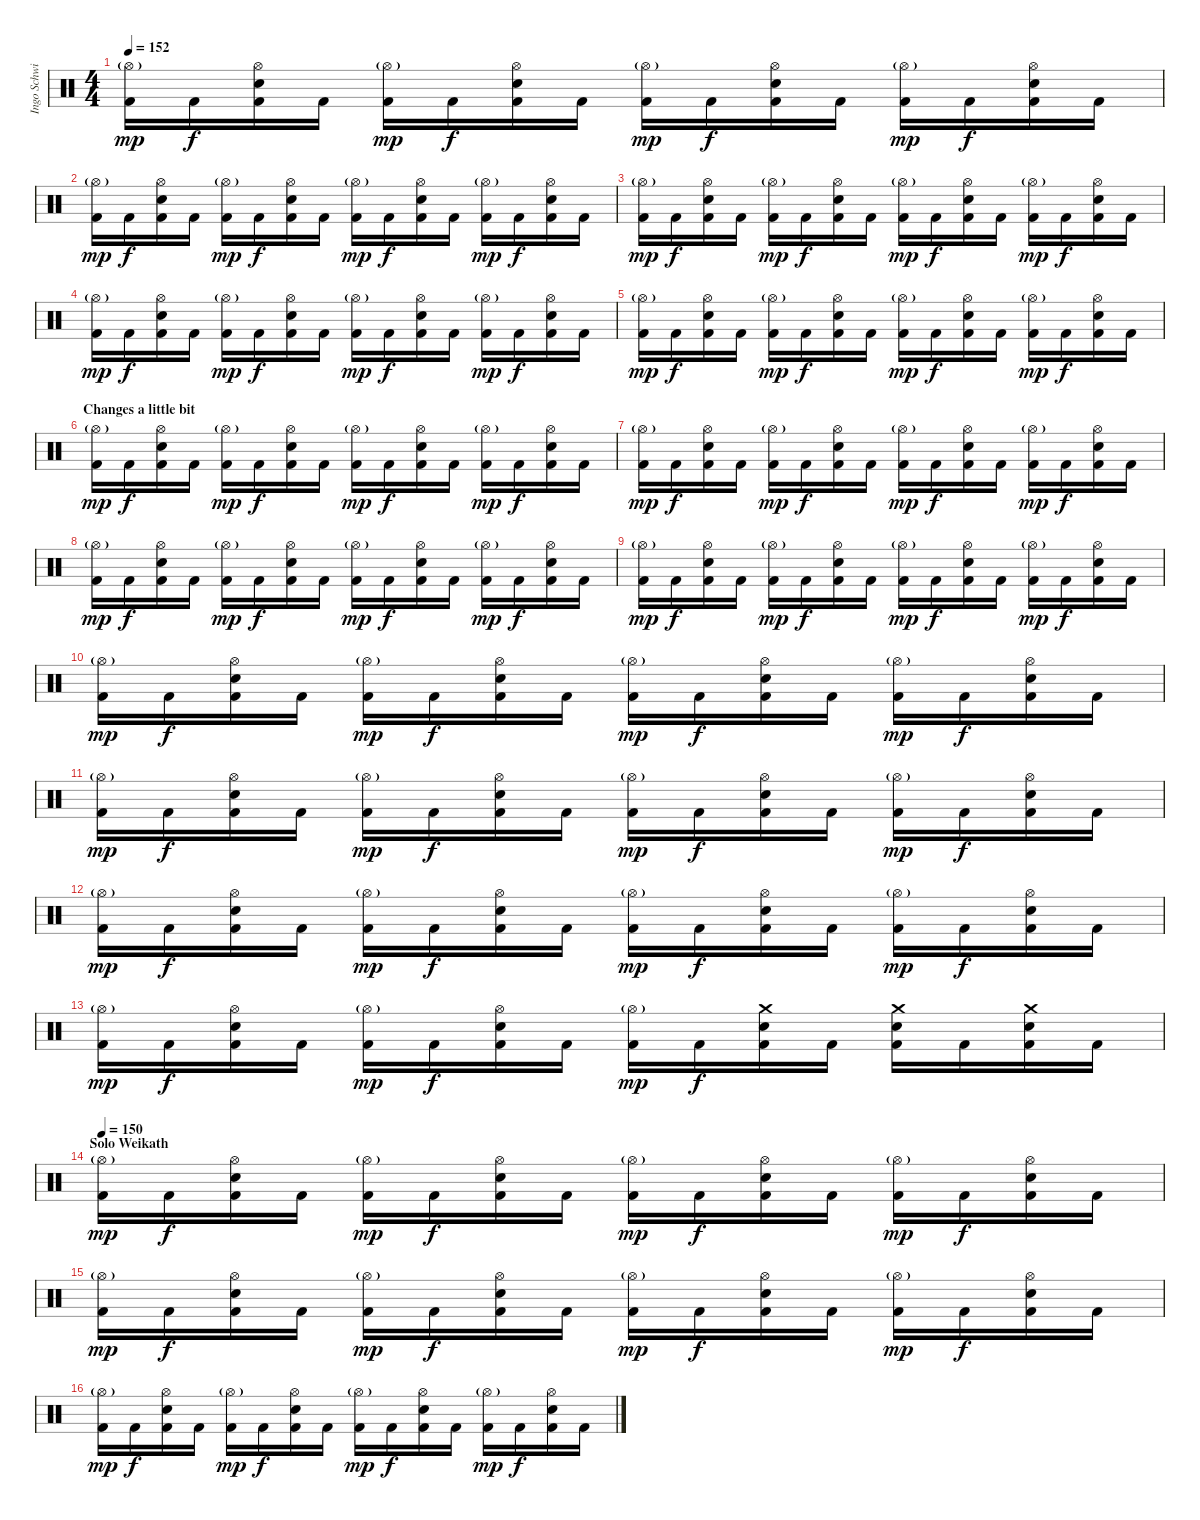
\track ("Ingo Schwichtenberg" "Ingo Schwi") {instrument percussion}
\staff {score}
\articulation defaults
\ts (4 4)
\tempo 152
\clef neutral
\ks c
("Hi-Hat (open)"{g} "Kick (hit) 2").16{dy mp} "Kick (hit) 2".16{dy f} ("Hi-Hat (open)" "Snare (hit) 2" "Kick (hit) 2").16 "Kick (hit) 2".16 ("Hi-Hat (open)"{g} "Kick (hit) 2").16{dy mp} "Kick (hit) 2".16{dy f} ("Hi-Hat (open)" "Snare (hit) 2" "Kick (hit) 2").16 "Kick (hit) 2".16 ("Hi-Hat (open)"{g} "Kick (hit) 2").16{dy mp} "Kick (hit) 2".16{dy f} ("Hi-Hat (open)" "Snare (hit) 2" "Kick (hit) 2").16 "Kick (hit) 2".16 ("Hi-Hat (open)"{g} "Kick (hit) 2").16{dy mp} "Kick (hit) 2".16{dy f} ("Hi-Hat (open)" "Snare (hit) 2" "Kick (hit) 2").16 "Kick (hit) 2".16 |
("Hi-Hat (open)"{g} "Kick (hit) 2").16{dy mp} "Kick (hit) 2".16{dy f} ("Hi-Hat (open)" "Snare (hit) 2" "Kick (hit) 2").16 "Kick (hit) 2".16 ("Hi-Hat (open)"{g} "Kick (hit) 2").16{dy mp} "Kick (hit) 2".16{dy f} ("Hi-Hat (open)" "Snare (hit) 2" "Kick (hit) 2").16 "Kick (hit) 2".16 ("Hi-Hat (open)"{g} "Kick (hit) 2").16{dy mp} "Kick (hit) 2".16{dy f} ("Hi-Hat (open)" "Snare (hit) 2" "Kick (hit) 2").16 "Kick (hit) 2".16 ("Hi-Hat (open)"{g} "Kick (hit) 2").16{dy mp} "Kick (hit) 2".16{dy f} ("Hi-Hat (open)" "Snare (hit) 2" "Kick (hit) 2").16 "Kick (hit) 2".16 |
("Hi-Hat (open)"{g} "Kick (hit) 2").16{dy mp} "Kick (hit) 2".16{dy f} ("Hi-Hat (open)" "Snare (hit) 2" "Kick (hit) 2").16 "Kick (hit) 2".16 ("Hi-Hat (open)"{g} "Kick (hit) 2").16{dy mp} "Kick (hit) 2".16{dy f} ("Hi-Hat (open)" "Snare (hit) 2" "Kick (hit) 2").16 "Kick (hit) 2".16 ("Hi-Hat (open)"{g} "Kick (hit) 2").16{dy mp} "Kick (hit) 2".16{dy f} ("Hi-Hat (open)" "Snare (hit) 2" "Kick (hit) 2").16 "Kick (hit) 2".16 ("Hi-Hat (open)"{g} "Kick (hit) 2").16{dy mp} "Kick (hit) 2".16{dy f} ("Hi-Hat (open)" "Snare (hit) 2" "Kick (hit) 2").16 "Kick (hit) 2".16 |
("Hi-Hat (open)"{g} "Kick (hit) 2").16{dy mp} "Kick (hit) 2".16{dy f} ("Hi-Hat (open)" "Snare (hit) 2" "Kick (hit) 2").16 "Kick (hit) 2".16 ("Hi-Hat (open)"{g} "Kick (hit) 2").16{dy mp} "Kick (hit) 2".16{dy f} ("Hi-Hat (open)" "Snare (hit) 2" "Kick (hit) 2").16 "Kick (hit) 2".16 ("Hi-Hat (open)"{g} "Kick (hit) 2").16{dy mp} "Kick (hit) 2".16{dy f} ("Hi-Hat (open)" "Snare (hit) 2" "Kick (hit) 2").16 "Kick (hit) 2".16 ("Hi-Hat (open)"{g} "Kick (hit) 2").16{dy mp} "Kick (hit) 2".16{dy f} ("Hi-Hat (open)" "Snare (hit) 2" "Kick (hit) 2").16 "Kick (hit) 2".16 |
("Hi-Hat (open)"{g} "Kick (hit) 2").16{dy mp} "Kick (hit) 2".16{dy f} ("Hi-Hat (open)" "Snare (hit) 2" "Kick (hit) 2").16 "Kick (hit) 2".16 ("Hi-Hat (open)"{g} "Kick (hit) 2").16{dy mp} "Kick (hit) 2".16{dy f} ("Hi-Hat (open)" "Snare (hit) 2" "Kick (hit) 2").16 "Kick (hit) 2".16 ("Hi-Hat (open)"{g} "Kick (hit) 2").16{dy mp} "Kick (hit) 2".16{dy f} ("Hi-Hat (open)" "Snare (hit) 2" "Kick (hit) 2").16 "Kick (hit) 2".16 ("Hi-Hat (open)"{g} "Kick (hit) 2").16{dy mp} "Kick (hit) 2".16{dy f} ("Hi-Hat (open)" "Snare (hit) 2" "Kick (hit) 2").16 "Kick (hit) 2".16 |
\section ("" "Changes a little bit")
("Hi-Hat (open)"{g} "Kick (hit) 2").16{dy mp} "Kick (hit) 2".16{dy f} ("Hi-Hat (open)" "Snare (hit) 2" "Kick (hit) 2").16 "Kick (hit) 2".16 ("Hi-Hat (open)"{g} "Kick (hit) 2").16{dy mp} "Kick (hit) 2".16{dy f} ("Hi-Hat (open)" "Snare (hit) 2" "Kick (hit) 2").16 "Kick (hit) 2".16 ("Hi-Hat (open)"{g} "Kick (hit) 2").16{dy mp} "Kick (hit) 2".16{dy f} ("Hi-Hat (open)" "Snare (hit) 2" "Kick (hit) 2").16 "Kick (hit) 2".16 ("Hi-Hat (open)"{g} "Kick (hit) 2").16{dy mp} "Kick (hit) 2".16{dy f} ("Hi-Hat (open)" "Snare (hit) 2" "Kick (hit) 2").16 "Kick (hit) 2".16 |
("Hi-Hat (open)"{g} "Kick (hit) 2").16{dy mp} "Kick (hit) 2".16{dy f} ("Hi-Hat (open)" "Snare (hit) 2" "Kick (hit) 2").16 "Kick (hit) 2".16 ("Hi-Hat (open)"{g} "Kick (hit) 2").16{dy mp} "Kick (hit) 2".16{dy f} ("Hi-Hat (open)" "Snare (hit) 2" "Kick (hit) 2").16 "Kick (hit) 2".16 ("Hi-Hat (open)"{g} "Kick (hit) 2").16{dy mp} "Kick (hit) 2".16{dy f} ("Hi-Hat (open)" "Snare (hit) 2" "Kick (hit) 2").16 "Kick (hit) 2".16 ("Hi-Hat (open)"{g} "Kick (hit) 2").16{dy mp} "Kick (hit) 2".16{dy f} ("Hi-Hat (open)" "Snare (hit) 2" "Kick (hit) 2").16 "Kick (hit) 2".16 |
("Hi-Hat (open)"{g} "Kick (hit) 2").16{dy mp} "Kick (hit) 2".16{dy f} ("Hi-Hat (open)" "Snare (hit) 2" "Kick (hit) 2").16 "Kick (hit) 2".16 ("Hi-Hat (open)"{g} "Kick (hit) 2").16{dy mp} "Kick (hit) 2".16{dy f} ("Hi-Hat (open)" "Snare (hit) 2" "Kick (hit) 2").16 "Kick (hit) 2".16 ("Hi-Hat (open)"{g} "Kick (hit) 2").16{dy mp} "Kick (hit) 2".16{dy f} ("Hi-Hat (open)" "Snare (hit) 2" "Kick (hit) 2").16 "Kick (hit) 2".16 ("Hi-Hat (open)"{g} "Kick (hit) 2").16{dy mp} "Kick (hit) 2".16{dy f} ("Hi-Hat (open)" "Snare (hit) 2" "Kick (hit) 2").16 "Kick (hit) 2".16 |
("Hi-Hat (open)"{g} "Kick (hit) 2").16{dy mp} "Kick (hit) 2".16{dy f} ("Hi-Hat (open)" "Snare (hit) 2" "Kick (hit) 2").16 "Kick (hit) 2".16 ("Hi-Hat (open)"{g} "Kick (hit) 2").16{dy mp} "Kick (hit) 2".16{dy f} ("Hi-Hat (open)" "Snare (hit) 2" "Kick (hit) 2").16 "Kick (hit) 2".16 ("Hi-Hat (open)"{g} "Kick (hit) 2").16{dy mp} "Kick (hit) 2".16{dy f} ("Hi-Hat (open)" "Snare (hit) 2" "Kick (hit) 2").16 "Kick (hit) 2".16 ("Hi-Hat (open)"{g} "Kick (hit) 2").16{dy mp} "Kick (hit) 2".16{dy f} ("Hi-Hat (open)" "Snare (hit) 2" "Kick (hit) 2").16 "Kick (hit) 2".16 |
("Hi-Hat (open)"{g} "Kick (hit) 2").16{dy mp} "Kick (hit) 2".16{dy f} ("Hi-Hat (open)" "Snare (hit) 2" "Kick (hit) 2").16 "Kick (hit) 2".16 ("Hi-Hat (open)"{g} "Kick (hit) 2").16{dy mp} "Kick (hit) 2".16{dy f} ("Hi-Hat (open)" "Snare (hit) 2" "Kick (hit) 2").16 "Kick (hit) 2".16 ("Hi-Hat (open)"{g} "Kick (hit) 2").16{dy mp} "Kick (hit) 2".16{dy f} ("Hi-Hat (open)" "Snare (hit) 2" "Kick (hit) 2").16 "Kick (hit) 2".16 ("Hi-Hat (open)"{g} "Kick (hit) 2").16{dy mp} "Kick (hit) 2".16{dy f} ("Hi-Hat (open)" "Snare (hit) 2" "Kick (hit) 2").16 "Kick (hit) 2".16 |
("Hi-Hat (open)"{g} "Kick (hit) 2").16{dy mp} "Kick (hit) 2".16{dy f} ("Hi-Hat (open)" "Snare (hit) 2" "Kick (hit) 2").16 "Kick (hit) 2".16 ("Hi-Hat (open)"{g} "Kick (hit) 2").16{dy mp} "Kick (hit) 2".16{dy f} ("Hi-Hat (open)" "Snare (hit) 2" "Kick (hit) 2").16 "Kick (hit) 2".16 ("Hi-Hat (open)"{g} "Kick (hit) 2").16{dy mp} "Kick (hit) 2".16{dy f} ("Hi-Hat (open)" "Snare (hit) 2" "Kick (hit) 2").16 "Kick (hit) 2".16 ("Hi-Hat (open)"{g} "Kick (hit) 2").16{dy mp} "Kick (hit) 2".16{dy f} ("Hi-Hat (open)" "Snare (hit) 2" "Kick (hit) 2").16 "Kick (hit) 2".16 |
("Hi-Hat (open)"{g} "Kick (hit) 2").16{dy mp} "Kick (hit) 2".16{dy f} ("Hi-Hat (open)" "Snare (hit) 2" "Kick (hit) 2").16 "Kick (hit) 2".16 ("Hi-Hat (open)"{g} "Kick (hit) 2").16{dy mp} "Kick (hit) 2".16{dy f} ("Hi-Hat (open)" "Snare (hit) 2" "Kick (hit) 2").16 "Kick (hit) 2".16 ("Hi-Hat (open)"{g} "Kick (hit) 2").16{dy mp} "Kick (hit) 2".16{dy f} ("Hi-Hat (open)" "Snare (hit) 2" "Kick (hit) 2").16 "Kick (hit) 2".16 ("Hi-Hat (open)"{g} "Kick (hit) 2").16{dy mp} "Kick (hit) 2".16{dy f} ("Hi-Hat (open)" "Snare (hit) 2" "Kick (hit) 2").16 "Kick (hit) 2".16 |
("Hi-Hat (open)"{g} "Kick (hit) 2").16{dy mp} "Kick (hit) 2".16{dy f} ("Hi-Hat (open)" "Snare (hit) 2" "Kick (hit) 2").16 "Kick (hit) 2".16 ("Hi-Hat (open)"{g} "Kick (hit) 2").16{dy mp} "Kick (hit) 2".16{dy f} ("Hi-Hat (open)" "Snare (hit) 2" "Kick (hit) 2").16 "Kick (hit) 2".16 ("Hi-Hat (open)"{g} "Kick (hit) 2").16{dy mp} "Kick (hit) 2".16{dy f} ("Crash medium (hit)" "Snare (hit) 2" "Kick (hit) 2").16 "Kick (hit) 2".16 ("Crash medium (hit)" "Snare (hit) 2" "Kick (hit) 2").16 "Kick (hit) 2".16 ("Crash medium (hit)" "Snare (hit) 2" "Kick (hit) 2").16 "Kick (hit) 2".16 |
\section ("" "Solo Weikath")
\tempo 150
("Hi-Hat (open)"{g} "Kick (hit) 2").16{dy mp} "Kick (hit) 2".16{dy f} ("Hi-Hat (open)" "Snare (hit) 2" "Kick (hit) 2").16 "Kick (hit) 2".16 ("Hi-Hat (open)"{g} "Kick (hit) 2").16{dy mp} "Kick (hit) 2".16{dy f} ("Hi-Hat (open)" "Snare (hit) 2" "Kick (hit) 2").16 "Kick (hit) 2".16 ("Hi-Hat (open)"{g} "Kick (hit) 2").16{dy mp} "Kick (hit) 2".16{dy f} ("Hi-Hat (open)" "Snare (hit) 2" "Kick (hit) 2").16 "Kick (hit) 2".16 ("Hi-Hat (open)"{g} "Kick (hit) 2").16{dy mp} "Kick (hit) 2".16{dy f} ("Hi-Hat (open)" "Snare (hit) 2" "Kick (hit) 2").16 "Kick (hit) 2".16 |
("Hi-Hat (open)"{g} "Kick (hit) 2").16{dy mp} "Kick (hit) 2".16{dy f} ("Hi-Hat (open)" "Snare (hit) 2" "Kick (hit) 2").16 "Kick (hit) 2".16 ("Hi-Hat (open)"{g} "Kick (hit) 2").16{dy mp} "Kick (hit) 2".16{dy f} ("Hi-Hat (open)" "Snare (hit) 2" "Kick (hit) 2").16 "Kick (hit) 2".16 ("Hi-Hat (open)"{g} "Kick (hit) 2").16{dy mp} "Kick (hit) 2".16{dy f} ("Hi-Hat (open)" "Snare (hit) 2" "Kick (hit) 2").16 "Kick (hit) 2".16 ("Hi-Hat (open)"{g} "Kick (hit) 2").16{dy mp} "Kick (hit) 2".16{dy f} ("Hi-Hat (open)" "Snare (hit) 2" "Kick (hit) 2").16 "Kick (hit) 2".16 |
("Hi-Hat (open)"{g} "Kick (hit) 2").16{dy mp} "Kick (hit) 2".16{dy f} ("Hi-Hat (open)" "Snare (hit) 2" "Kick (hit) 2").16 "Kick (hit) 2".16 ("Hi-Hat (open)"{g} "Kick (hit) 2").16{dy mp} "Kick (hit) 2".16{dy f} ("Hi-Hat (open)" "Snare (hit) 2" "Kick (hit) 2").16 "Kick (hit) 2".16 ("Hi-Hat (open)"{g} "Kick (hit) 2").16{dy mp} "Kick (hit) 2".16{dy f} ("Hi-Hat (open)" "Snare (hit) 2" "Kick (hit) 2").16 "Kick (hit) 2".16 ("Hi-Hat (open)"{g} "Kick (hit) 2").16{dy mp} "Kick (hit) 2".16{dy f} ("Hi-Hat (open)" "Snare (hit) 2" "Kick (hit) 2").16 "Kick (hit) 2".16
